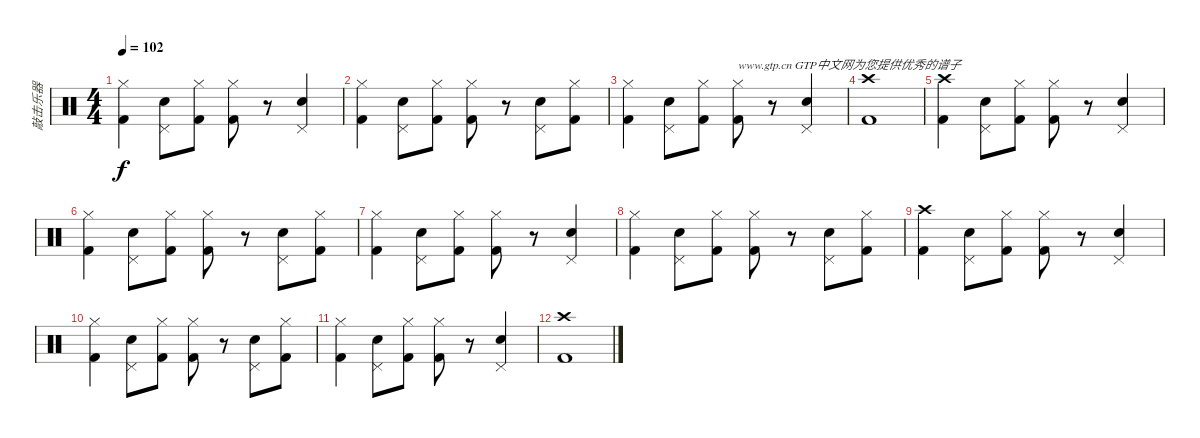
\track ("敲击乐器" "敲击乐器") {instrument percussion}
\staff {score}
\articulation defaults
\ts (4 4)
\tempo 102
\clef neutral
\ks c
("Hi-Hat (closed)" "Kick (hit) 2").4{dy f} ("Pedal Hi-Hat (hit)" "Snare (hit) 2").8 ("Hi-Hat (closed)" "Kick (hit) 2").8 ("Hi-Hat (closed)" "Kick (hit) 2").8 r.8 ("Pedal Hi-Hat (hit)" "Snare (hit) 2").4 |
("Hi-Hat (closed)" "Kick (hit) 2").4 ("Pedal Hi-Hat (hit)" "Snare (hit) 2").8 ("Hi-Hat (closed)" "Kick (hit) 2").8 ("Hi-Hat (closed)" "Kick (hit) 2").8 r.8 ("Pedal Hi-Hat (hit)" "Snare (hit) 2").8 ("Hi-Hat (closed)" "Kick (hit) 2").8 |
("Hi-Hat (closed)" "Kick (hit) 2").4 ("Pedal Hi-Hat (hit)" "Snare (hit) 2").8 ("Hi-Hat (closed)" "Kick (hit) 2").8 ("Hi-Hat (closed)" "Kick (hit) 2").8{txt "www.gtp.cn GTP中文网为您提供优秀的谱子"} r.8 ("Pedal Hi-Hat (hit)" "Snare (hit) 2").4 |
("Crash high (hit)" "Kick (hit) 2").1 |
("Crash high (hit)" "Kick (hit) 2").4 ("Pedal Hi-Hat (hit)" "Snare (hit) 2").8 ("Hi-Hat (closed)" "Kick (hit) 2").8 ("Hi-Hat (closed)" "Kick (hit) 2").8 r.8 ("Pedal Hi-Hat (hit)" "Snare (hit) 2").4 |
("Hi-Hat (closed)" "Kick (hit) 2").4 ("Pedal Hi-Hat (hit)" "Snare (hit) 2").8 ("Hi-Hat (closed)" "Kick (hit) 2").8 ("Hi-Hat (closed)" "Kick (hit) 2").8 r.8 ("Pedal Hi-Hat (hit)" "Snare (hit) 2").8 ("Hi-Hat (closed)" "Kick (hit) 2").8 |
("Hi-Hat (closed)" "Kick (hit) 2").4 ("Pedal Hi-Hat (hit)" "Snare (hit) 2").8 ("Hi-Hat (closed)" "Kick (hit) 2").8 ("Hi-Hat (closed)" "Kick (hit) 2").8 r.8 ("Pedal Hi-Hat (hit)" "Snare (hit) 2").4 |
("Hi-Hat (closed)" "Kick (hit) 2").4 ("Pedal Hi-Hat (hit)" "Snare (hit) 2").8 ("Hi-Hat (closed)" "Kick (hit) 2").8 ("Hi-Hat (closed)" "Kick (hit) 2").8 r.8 ("Pedal Hi-Hat (hit)" "Snare (hit) 2").8 ("Hi-Hat (closed)" "Kick (hit) 2").8 |
("Crash high (hit)" "Kick (hit) 2").4 ("Pedal Hi-Hat (hit)" "Snare (hit) 2").8 ("Hi-Hat (closed)" "Kick (hit) 2").8 ("Hi-Hat (closed)" "Kick (hit) 2").8 r.8 ("Pedal Hi-Hat (hit)" "Snare (hit) 2").4 |
("Hi-Hat (closed)" "Kick (hit) 2").4 ("Pedal Hi-Hat (hit)" "Snare (hit) 2").8 ("Hi-Hat (closed)" "Kick (hit) 2").8 ("Hi-Hat (closed)" "Kick (hit) 2").8 r.8 ("Pedal Hi-Hat (hit)" "Snare (hit) 2").8 ("Hi-Hat (closed)" "Kick (hit) 2").8 |
("Hi-Hat (closed)" "Kick (hit) 2").4 ("Pedal Hi-Hat (hit)" "Snare (hit) 2").8 ("Hi-Hat (closed)" "Kick (hit) 2").8 ("Hi-Hat (closed)" "Kick (hit) 2").8 r.8 ("Pedal Hi-Hat (hit)" "Snare (hit) 2").4 |
("Crash high (hit)" "Kick (hit) 2").1
